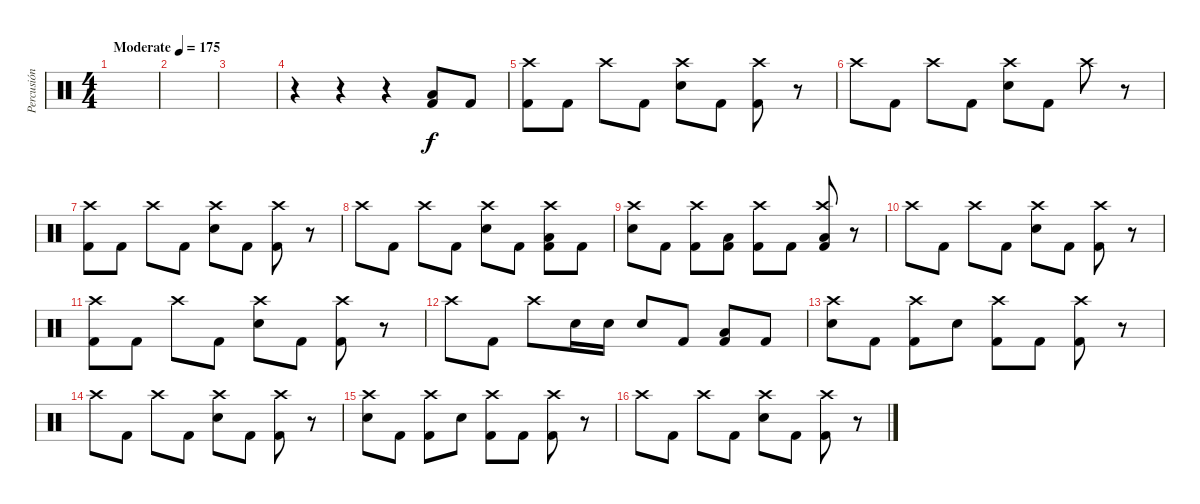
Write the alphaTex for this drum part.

\track ("Percusión" "Percusión") {instrument percussion}
\staff {score}
\articulation defaults
\ts (4 4)
\tempo (175 "Moderate")
\clef neutral
\ks c
|
|
|
r.4 r.4 r.4 ("Low Tom (hit)" "Kick (hit) 2").8 "Kick (hit) 2".8 |
("Crash high (hit)" "Kick (hit) 2").8 "Kick (hit) 2".8 "Crash high (hit)".8 "Kick (hit) 2".8 ("Crash high (hit)" "Electric Snare (hit)").8 "Kick (hit) 2".8 ("Crash high (hit)" "Kick (hit) 2").8 r.8 |
"Crash high (hit)".8 "Kick (hit) 2".8 "Crash high (hit)".8 "Kick (hit) 2".8 ("Crash high (hit)" "Electric Snare (hit)").8 "Kick (hit) 2".8 "Crash high (hit)".8 r.8 |
("Crash high (hit)" "Kick (hit) 2").8 "Kick (hit) 2".8 "Crash high (hit)".8 "Kick (hit) 2".8 ("Crash high (hit)" "Electric Snare (hit)").8 "Kick (hit) 2".8 ("Crash high (hit)" "Kick (hit) 2").8 r.8 |
"Crash high (hit)".8 "Kick (hit) 2".8 "Crash high (hit)".8 "Kick (hit) 2".8 ("Crash high (hit)" "Electric Snare (hit)").8 "Kick (hit) 2".8 ("Crash high (hit)" "Low Tom (hit)" "Kick (hit) 2").8 "Kick (hit) 2".8 |
("Crash high (hit)" "Electric Snare (hit)").8 "Kick (hit) 2".8 ("Crash high (hit)" "Kick (hit) 2").8 ("Low Tom (hit)" "Kick (hit) 2").8 ("Crash high (hit)" "Kick (hit) 2").8 "Kick (hit) 2".8 ("Crash high (hit)" "Low Floor Tom (hit)" "Kick (hit) 2").8 r.8 |
"Crash high (hit)".8 "Kick (hit) 2".8 "Crash high (hit)".8 "Kick (hit) 2".8 ("Crash high (hit)" "Electric Snare (hit)").8 "Kick (hit) 2".8 ("Crash high (hit)" "Kick (hit) 2").8 r.8 |
("Crash high (hit)" "Kick (hit) 2").8 "Kick (hit) 2".8 "Crash high (hit)".8 "Kick (hit) 2".8 ("Crash high (hit)" "Electric Snare (hit)").8 "Kick (hit) 2".8 ("Crash high (hit)" "Kick (hit) 2").8 r.8 |
"Crash high (hit)".8 "Kick (hit) 2".8 "Crash high (hit)".8 "Electric Snare (hit)".16 "Electric Snare (hit)".16 "Electric Snare (hit)".8 "Kick (hit) 2".8 ("Low Tom (hit)" "Kick (hit) 2").8 "Kick (hit) 2".8 |
("Crash high (hit)" "Electric Snare (hit)").8 "Kick (hit) 2".8 ("Crash high (hit)" "Kick (hit) 2").8 "Electric Snare (hit)".8 ("Crash high (hit)" "Kick (hit) 2").8 "Kick (hit) 2".8 ("Crash high (hit)" "Kick (hit) 2").8 r.8 |
"Crash high (hit)".8 "Kick (hit) 2".8 "Crash high (hit)".8 "Kick (hit) 2".8 ("Crash high (hit)" "Electric Snare (hit)").8 "Kick (hit) 2".8 ("Crash high (hit)" "Kick (hit) 2").8 r.8 |
("Crash high (hit)" "Electric Snare (hit)").8 "Kick (hit) 2".8 ("Crash high (hit)" "Kick (hit) 2").8 "Electric Snare (hit)".8 ("Crash high (hit)" "Kick (hit) 2").8 "Kick (hit) 2".8 ("Crash high (hit)" "Kick (hit) 2").8 r.8 |
"Crash high (hit)".8 "Kick (hit) 2".8 "Crash high (hit)".8 "Kick (hit) 2".8 ("Crash high (hit)" "Electric Snare (hit)").8 "Kick (hit) 2".8 ("Crash high (hit)" "Kick (hit) 2").8 r.8
